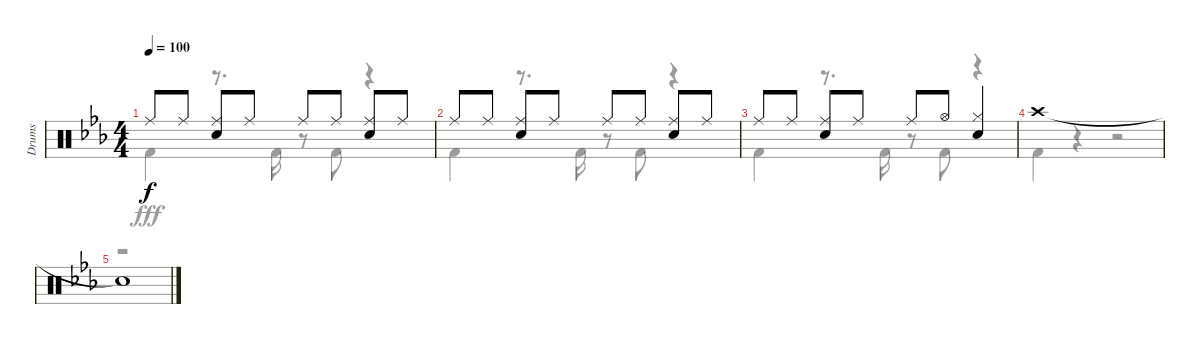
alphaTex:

\track ("Drums" "Drums") {instrument percussion}
\staff {score}
\articulation defaults
\voice
\ts (4 4)
\tempo 100
\clef neutral
\ks eb "Ride (middle)".8{dy f} "Ride (middle)".8
("Ride (middle)" "Snare (hit) 2").8 "Ride (middle)".8 "Ride (middle)".8 "Ride (middle)".8 ("Ride (middle)" "Snare (hit) 2").8 "Ride (middle)".8 |
"Ride (middle)".8 "Ride (middle)".8 ("Ride (middle)" "Snare (hit) 2").8 "Ride (middle)".8 "Ride (middle)".8 "Ride (middle)".8 ("Ride (middle)" "Snare (hit) 2").8 "Ride (middle)".8 |
"Ride (middle)".8 "Ride (middle)".8 ("Ride (middle)" "Snare (hit) 2").8 "Ride (middle)".8 "Ride (middle)".8 "Hi-Hat (open)".8 ("Hi-Hat (closed)" "Snare (hit) 2").4 |
"Crash high (hit)".1 |
"Snare (hit)"{t}.1
\voice
\clef neutral
\ottava regular
\simile none
\ks eb "Kick (hit) 2".4{dy fff}
r.8{d} "Kick (hit) 2".16 r.8 "Kick (hit) 2".8 r.4 |
"Kick (hit) 2".4 r.8{d} "Kick (hit) 2".16 r.8 "Kick (hit) 2".8 r.4 |
"Kick (hit) 2".4 r.8{d} "Kick (hit) 2".16 r.8 "Kick (hit) 2".8 r.4 |
"Kick (hit) 2".4 r.4 r.2 |
r.1
